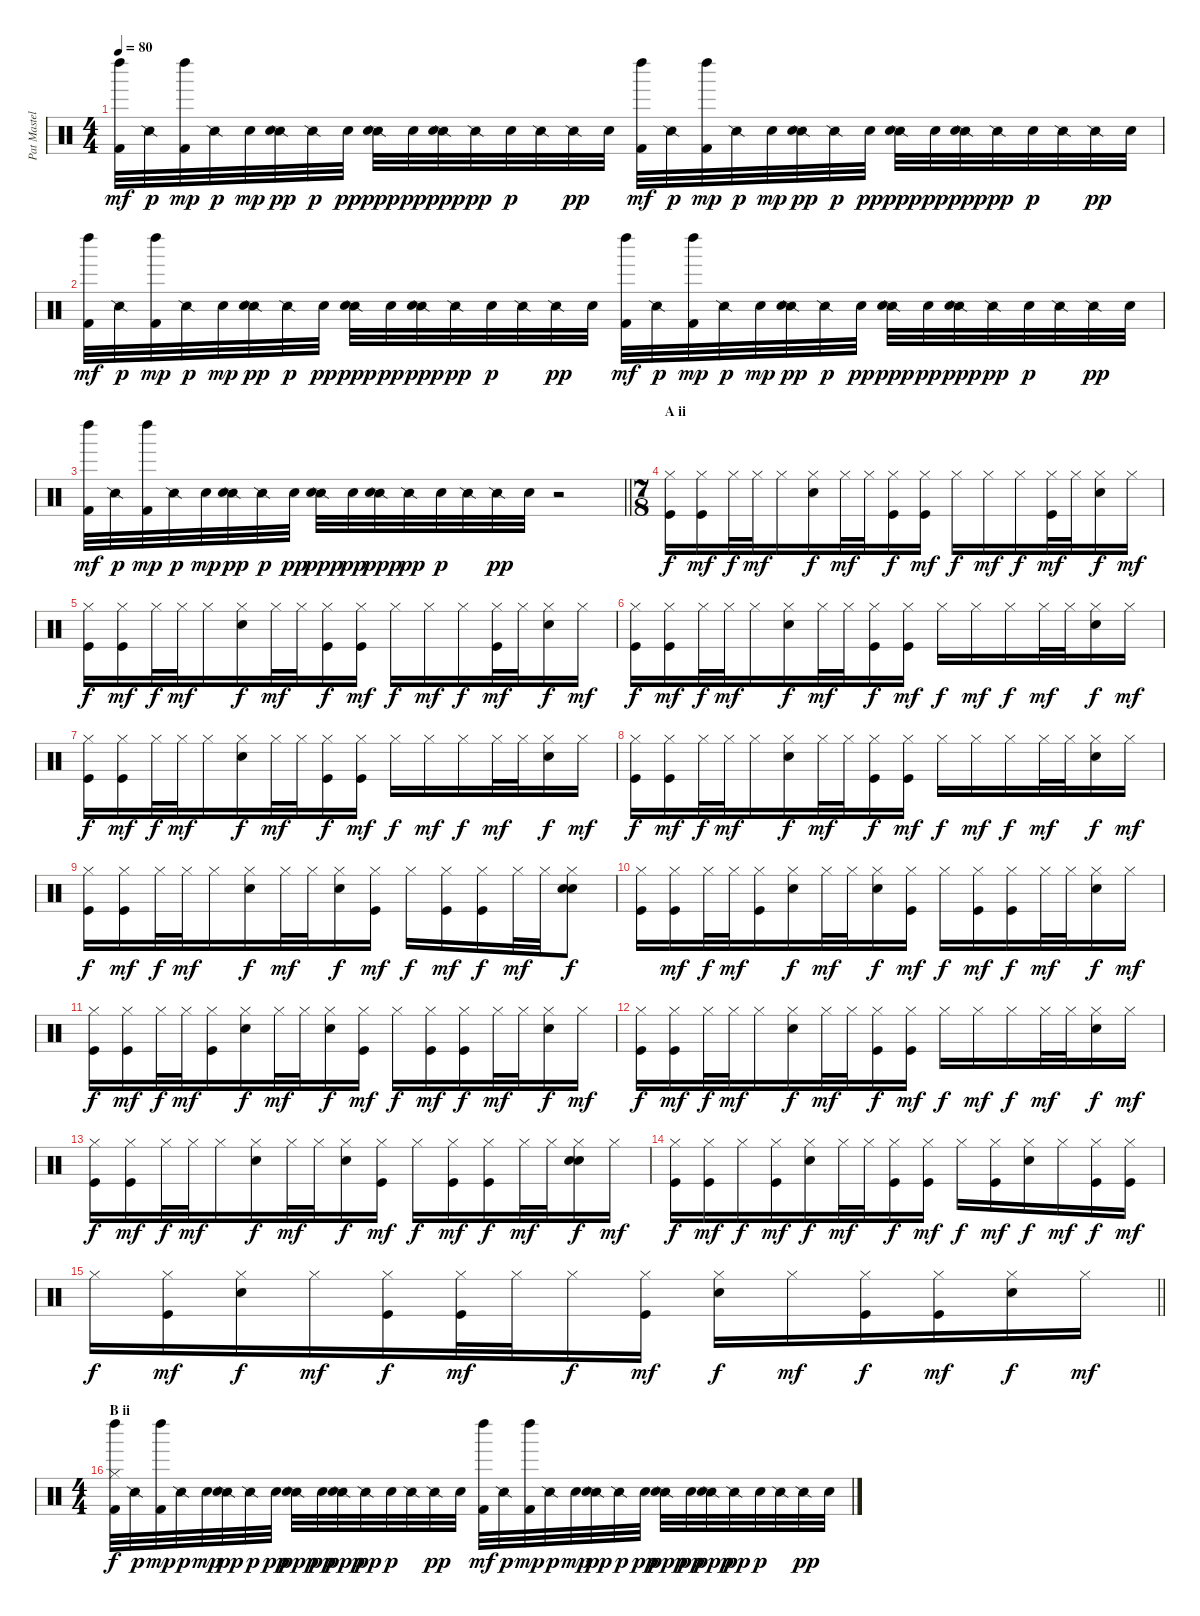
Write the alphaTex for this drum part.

\track ("Pat Mastelotto (Traps / Buttons)" "Pat Mastel") {instrument percussion}
\staff {score}
\articulation defaults
\ts (4 4)
\tempo 80
\clef neutral
\ks c
("Left Maraca (hit)" "Kick (hit) 2").32{dy mf} "Snare (side stick) 2".32{dy p} ("Left Maraca (hit)" "Kick (hit) 2").32{dy mp} "Snare (side stick) 2".32{dy p} "Electric Snare (hit)".32{dy mp} ("Snare (side stick) 2" "Electric Snare (hit)").32{dy pp} "Snare (side stick) 2".32{dy p} "Electric Snare (hit)".32{dy pp} ("Snare (side stick) 2" "Electric Snare (hit)").32{dy ppp} "Electric Snare (hit)".32{dy pp} ("Snare (side stick) 2" "Electric Snare (hit)").32{dy ppp} "Snare (side stick) 2".32{dy pp} "Electric Snare (hit)".32{dy p} "Snare (side stick) 2".32 "Snare (side stick) 2".32{dy pp} "Electric Snare (hit)".32 ("Left Maraca (hit)" "Kick (hit) 2").32{dy mf} "Snare (side stick) 2".32{dy p} ("Left Maraca (hit)" "Kick (hit) 2").32{dy mp} "Snare (side stick) 2".32{dy p} "Electric Snare (hit)".32{dy mp} ("Snare (side stick) 2" "Electric Snare (hit)").32{dy pp} "Snare (side stick) 2".32{dy p} "Electric Snare (hit)".32{dy pp} ("Snare (side stick) 2" "Electric Snare (hit)").32{dy ppp} "Electric Snare (hit)".32{dy pp} ("Snare (side stick) 2" "Electric Snare (hit)").32{dy ppp} "Snare (side stick) 2".32{dy pp} "Electric Snare (hit)".32{dy p} "Snare (side stick) 2".32 "Snare (side stick) 2".32{dy pp} "Electric Snare (hit)".32 |
("Left Maraca (hit)" "Kick (hit) 2").32{dy mf} "Snare (side stick) 2".32{dy p} ("Left Maraca (hit)" "Kick (hit) 2").32{dy mp} "Snare (side stick) 2".32{dy p} "Electric Snare (hit)".32{dy mp} ("Snare (side stick) 2" "Electric Snare (hit)").32{dy pp} "Snare (side stick) 2".32{dy p} "Electric Snare (hit)".32{dy pp} ("Snare (side stick) 2" "Electric Snare (hit)").32{dy ppp} "Electric Snare (hit)".32{dy pp} ("Snare (side stick) 2" "Electric Snare (hit)").32{dy ppp} "Snare (side stick) 2".32{dy pp} "Electric Snare (hit)".32{dy p} "Snare (side stick) 2".32 "Snare (side stick) 2".32{dy pp} "Electric Snare (hit)".32 ("Left Maraca (hit)" "Kick (hit) 2").32{dy mf} "Snare (side stick) 2".32{dy p} ("Left Maraca (hit)" "Kick (hit) 2").32{dy mp} "Snare (side stick) 2".32{dy p} "Electric Snare (hit)".32{dy mp} ("Snare (side stick) 2" "Electric Snare (hit)").32{dy pp} "Snare (side stick) 2".32{dy p} "Electric Snare (hit)".32{dy pp} ("Snare (side stick) 2" "Electric Snare (hit)").32{dy ppp} "Electric Snare (hit)".32{dy pp} ("Snare (side stick) 2" "Electric Snare (hit)").32{dy ppp} "Snare (side stick) 2".32{dy pp} "Electric Snare (hit)".32{dy p} "Snare (side stick) 2".32 "Snare (side stick) 2".32{dy pp} "Electric Snare (hit)".32 |
\barLineRight lightlight
("Left Maraca (hit)" "Kick (hit) 2").32{dy mf} "Snare (side stick) 2".32{dy p} ("Left Maraca (hit)" "Kick (hit) 2").32{dy mp} "Snare (side stick) 2".32{dy p} "Electric Snare (hit)".32{dy mp} ("Snare (side stick) 2" "Electric Snare (hit)").32{dy pp} "Snare (side stick) 2".32{dy p} "Electric Snare (hit)".32{dy pp} ("Snare (side stick) 2" "Electric Snare (hit)").32{dy ppp} "Electric Snare (hit)".32{dy pp} ("Snare (side stick) 2" "Electric Snare (hit)").32{dy ppp} "Snare (side stick) 2".32{dy pp} "Electric Snare (hit)".32{dy p} "Snare (side stick) 2".32 "Snare (side stick) 2".32{dy pp} "Electric Snare (hit)".32 r.2 |
\ts (7 8)
\section ("" "A ii")
("Hi-Hat (closed)" "Kick (hit)").16{dy f} ("Hi-Hat (closed)" "Kick (hit)").16{dy mf} "Hi-Hat (closed)".32{dy f} "Hi-Hat (closed)".32{dy mf} "Hi-Hat (closed)".16 ("Hi-Hat (closed)" "Snare (hit) 2").16{dy f} "Hi-Hat (closed)".32{dy mf} "Hi-Hat (closed)".32 ("Hi-Hat (closed)" "Kick (hit)").16{dy f} ("Hi-Hat (closed)" "Kick (hit)").16{dy mf} "Hi-Hat (closed)".16{dy f} "Hi-Hat (closed)".16{dy mf} "Hi-Hat (closed)".16{dy f} ("Hi-Hat (closed)" "Kick (hit)").32{dy mf} "Hi-Hat (closed)".32 ("Hi-Hat (closed)" "Snare (hit) 2").16{dy f} "Hi-Hat (closed)".16{dy mf} |
("Hi-Hat (closed)" "Kick (hit)").16{dy f} ("Hi-Hat (closed)" "Kick (hit)").16{dy mf} "Hi-Hat (closed)".32{dy f} "Hi-Hat (closed)".32{dy mf} "Hi-Hat (closed)".16 ("Hi-Hat (closed)" "Snare (hit) 2").16{dy f} "Hi-Hat (closed)".32{dy mf} "Hi-Hat (closed)".32 ("Hi-Hat (closed)" "Kick (hit)").16{dy f} ("Hi-Hat (closed)" "Kick (hit)").16{dy mf} "Hi-Hat (closed)".16{dy f} "Hi-Hat (closed)".16{dy mf} "Hi-Hat (closed)".16{dy f} ("Hi-Hat (closed)" "Kick (hit)").32{dy mf} "Hi-Hat (closed)".32 ("Hi-Hat (closed)" "Snare (hit) 2").16{dy f} "Hi-Hat (closed)".16{dy mf} |
("Hi-Hat (closed)" "Kick (hit)").16{dy f} ("Hi-Hat (closed)" "Kick (hit)").16{dy mf} "Hi-Hat (closed)".32{dy f} "Hi-Hat (closed)".32{dy mf} "Hi-Hat (closed)".16 ("Hi-Hat (closed)" "Snare (hit) 2").16{dy f} "Hi-Hat (closed)".32{dy mf} "Hi-Hat (closed)".32 ("Hi-Hat (closed)" "Kick (hit)").16{dy f} ("Hi-Hat (closed)" "Kick (hit)").16{dy mf} "Hi-Hat (closed)".16{dy f} "Hi-Hat (closed)".16{dy mf} "Hi-Hat (closed)".16{dy f} "Hi-Hat (closed)".32{dy mf} "Hi-Hat (closed)".32 ("Hi-Hat (closed)" "Snare (hit) 2").16{dy f} "Hi-Hat (closed)".16{dy mf} |
("Hi-Hat (closed)" "Kick (hit)").16{dy f} ("Hi-Hat (closed)" "Kick (hit)").16{dy mf} "Hi-Hat (closed)".32{dy f} "Hi-Hat (closed)".32{dy mf} "Hi-Hat (closed)".16 ("Hi-Hat (closed)" "Snare (hit) 2").16{dy f} "Hi-Hat (closed)".32{dy mf} "Hi-Hat (closed)".32 ("Hi-Hat (closed)" "Kick (hit)").16{dy f} ("Hi-Hat (closed)" "Kick (hit)").16{dy mf} "Hi-Hat (closed)".16{dy f} "Hi-Hat (closed)".16{dy mf} "Hi-Hat (closed)".16{dy f} "Hi-Hat (closed)".32{dy mf} "Hi-Hat (closed)".32 ("Hi-Hat (closed)" "Snare (hit) 2").16{dy f} "Hi-Hat (closed)".16{dy mf} |
("Hi-Hat (closed)" "Kick (hit)").16{dy f} ("Hi-Hat (closed)" "Kick (hit)").16{dy mf} "Hi-Hat (closed)".32{dy f} "Hi-Hat (closed)".32{dy mf} "Hi-Hat (closed)".16 ("Hi-Hat (closed)" "Snare (hit) 2").16{dy f} "Hi-Hat (closed)".32{dy mf} "Hi-Hat (closed)".32 ("Hi-Hat (closed)" "Kick (hit)").16{dy f} ("Hi-Hat (closed)" "Kick (hit)").16{dy mf} "Hi-Hat (closed)".16{dy f} "Hi-Hat (closed)".16{dy mf} "Hi-Hat (closed)".16{dy f} "Hi-Hat (closed)".32{dy mf} "Hi-Hat (closed)".32 ("Hi-Hat (closed)" "Snare (hit) 2").16{dy f} "Hi-Hat (closed)".16{dy mf} |
("Hi-Hat (closed)" "Kick (hit)").16{dy f} ("Hi-Hat (closed)" "Kick (hit)").16{dy mf} "Hi-Hat (closed)".32{dy f} "Hi-Hat (closed)".32{dy mf} "Hi-Hat (closed)".16 ("Hi-Hat (closed)" "Snare (hit) 2").16{dy f} "Hi-Hat (closed)".32{dy mf} "Hi-Hat (closed)".32 ("Hi-Hat (closed)" "Snare (hit) 2").16{dy f} ("Hi-Hat (closed)" "Kick (hit)").16{dy mf} "Hi-Hat (closed)".16{dy f} ("Hi-Hat (closed)" "Kick (hit)").16{dy mf} ("Hi-Hat (closed)" "Kick (hit)").16{dy f} "Hi-Hat (closed)".32{dy mf} "Hi-Hat (closed)".32 ("Hi-Hat (closed)" "Snare (hit) 2" "Electric Snare (hit)").8{dy f} |
("Hi-Hat (closed)" "Kick (hit)").16 ("Hi-Hat (closed)" "Kick (hit)").16{dy mf} "Hi-Hat (closed)".32{dy f} "Hi-Hat (closed)".32{dy mf} ("Hi-Hat (closed)" "Kick (hit)").16 ("Hi-Hat (closed)" "Snare (hit) 2").16{dy f} "Hi-Hat (closed)".32{dy mf} "Hi-Hat (closed)".32 ("Hi-Hat (closed)" "Snare (hit) 2").16{dy f} ("Hi-Hat (closed)" "Kick (hit)").16{dy mf} "Hi-Hat (closed)".16{dy f} ("Hi-Hat (closed)" "Kick (hit)").16{dy mf} ("Hi-Hat (closed)" "Kick (hit)").16{dy f} "Hi-Hat (closed)".32{dy mf} "Hi-Hat (closed)".32 ("Hi-Hat (closed)" "Snare (hit) 2").16{dy f} "Hi-Hat (closed)".16{dy mf} |
("Hi-Hat (closed)" "Kick (hit)").16{dy f} ("Hi-Hat (closed)" "Kick (hit)").16{dy mf} "Hi-Hat (closed)".32{dy f} "Hi-Hat (closed)".32{dy mf} ("Hi-Hat (closed)" "Kick (hit)").16 ("Hi-Hat (closed)" "Snare (hit) 2").16{dy f} "Hi-Hat (closed)".32{dy mf} "Hi-Hat (closed)".32 ("Hi-Hat (closed)" "Snare (hit) 2").16{dy f} ("Hi-Hat (closed)" "Kick (hit)").16{dy mf} "Hi-Hat (closed)".16{dy f} ("Hi-Hat (closed)" "Kick (hit)").16{dy mf} ("Hi-Hat (closed)" "Kick (hit)").16{dy f} "Hi-Hat (closed)".32{dy mf} "Hi-Hat (closed)".32 ("Hi-Hat (closed)" "Snare (hit) 2").16{dy f} "Hi-Hat (closed)".16{dy mf} |
("Hi-Hat (closed)" "Kick (hit)").16{dy f} ("Hi-Hat (closed)" "Kick (hit)").16{dy mf} "Hi-Hat (closed)".32{dy f} "Hi-Hat (closed)".32{dy mf} "Hi-Hat (closed)".16 ("Hi-Hat (closed)" "Snare (hit) 2").16{dy f} "Hi-Hat (closed)".32{dy mf} "Hi-Hat (closed)".32 ("Hi-Hat (closed)" "Kick (hit)").16{dy f} ("Hi-Hat (closed)" "Kick (hit)").16{dy mf} "Hi-Hat (closed)".16{dy f} "Hi-Hat (closed)".16{dy mf} "Hi-Hat (closed)".16{dy f} "Hi-Hat (closed)".32{dy mf} "Hi-Hat (closed)".32 ("Hi-Hat (closed)" "Snare (hit) 2").16{dy f} "Hi-Hat (closed)".16{dy mf} |
("Hi-Hat (closed)" "Kick (hit)").16{dy f} ("Hi-Hat (closed)" "Kick (hit)").16{dy mf} "Hi-Hat (closed)".32{dy f} "Hi-Hat (closed)".32{dy mf} "Hi-Hat (closed)".16 ("Hi-Hat (closed)" "Snare (hit) 2").16{dy f} "Hi-Hat (closed)".32{dy mf} "Hi-Hat (closed)".32 ("Hi-Hat (closed)" "Snare (hit) 2").16{dy f} ("Hi-Hat (closed)" "Kick (hit)").16{dy mf} "Hi-Hat (closed)".16{dy f} ("Hi-Hat (closed)" "Kick (hit)").16{dy mf} ("Hi-Hat (closed)" "Kick (hit)").16{dy f} "Hi-Hat (closed)".32{dy mf} "Hi-Hat (closed)".32 ("Hi-Hat (closed)" "Snare (hit) 2" "Electric Snare (hit)").16{dy f} "Hi-Hat (closed)".16{dy mf} |
("Hi-Hat (closed)" "Kick (hit)").16{dy f} ("Hi-Hat (closed)" "Kick (hit)").16{dy mf} "Hi-Hat (closed)".16{dy f} ("Hi-Hat (closed)" "Kick (hit)").16{dy mf} ("Hi-Hat (closed)" "Snare (hit) 2").16{dy f} "Hi-Hat (closed)".32{dy mf} "Hi-Hat (closed)".32 ("Hi-Hat (closed)" "Kick (hit)").16{dy f} ("Hi-Hat (closed)" "Kick (hit)").16{dy mf} "Hi-Hat (closed)".16{dy f} ("Hi-Hat (closed)" "Kick (hit)").16{dy mf} ("Hi-Hat (closed)" "Snare (hit) 2").16{dy f} "Hi-Hat (closed)".16{dy mf} ("Hi-Hat (closed)" "Kick (hit)").16{dy f} ("Hi-Hat (closed)" "Kick (hit)").16{dy mf} |
\barLineRight lightlight "Hi-Hat (closed)".16{dy f}
("Hi-Hat (closed)" "Kick (hit)").16{dy mf} ("Hi-Hat (closed)" "Snare (hit) 2").16{dy f} "Hi-Hat (closed)".16{dy mf} ("Hi-Hat (closed)" "Kick (hit)").16{dy f} ("Hi-Hat (closed)" "Kick (hit)").32{dy mf} "Hi-Hat (closed)".32 "Hi-Hat (closed)".16{dy f} ("Hi-Hat (closed)" "Kick (hit)").16{dy mf} ("Hi-Hat (closed)" "Snare (hit) 2").16{dy f} "Hi-Hat (closed)".16{dy mf} ("Hi-Hat (closed)" "Kick (hit)").16{dy f} ("Hi-Hat (closed)" "Kick (hit)").16{dy mf} ("Hi-Hat (closed)" "Snare (hit) 2").16{dy f} "Hi-Hat (closed)".16{dy mf} |
\ts (4 4)
\section ("" "B ii")
("Hi-Hat (closed)" "Left Maraca (hit)" "Kick (hit) 2").32{dy f} "Snare (side stick) 2".32{dy p} ("Left Maraca (hit)" "Kick (hit) 2").32{dy mp} "Snare (side stick) 2".32{dy p} "Electric Snare (hit)".32{dy mp} ("Snare (side stick) 2" "Electric Snare (hit)").32{dy pp} "Snare (side stick) 2".32{dy p} "Electric Snare (hit)".32{dy pp} ("Snare (side stick) 2" "Electric Snare (hit)").32{dy ppp} "Electric Snare (hit)".32{dy pp} ("Snare (side stick) 2" "Electric Snare (hit)").32{dy ppp} "Snare (side stick) 2".32{dy pp} "Electric Snare (hit)".32{dy p} "Snare (side stick) 2".32 "Snare (side stick) 2".32{dy pp} "Electric Snare (hit)".32 ("Left Maraca (hit)" "Kick (hit) 2").32{dy mf} "Snare (side stick) 2".32{dy p} ("Left Maraca (hit)" "Kick (hit) 2").32{dy mp} "Snare (side stick) 2".32{dy p} "Electric Snare (hit)".32{dy mp} ("Snare (side stick) 2" "Electric Snare (hit)").32{dy pp} "Snare (side stick) 2".32{dy p} "Electric Snare (hit)".32{dy pp} ("Snare (side stick) 2" "Electric Snare (hit)").32{dy ppp} "Electric Snare (hit)".32{dy pp} ("Snare (side stick) 2" "Electric Snare (hit)").32{dy ppp} "Snare (side stick) 2".32{dy pp} "Electric Snare (hit)".32{dy p} "Snare (side stick) 2".32 "Snare (side stick) 2".32{dy pp} "Electric Snare (hit)".32
